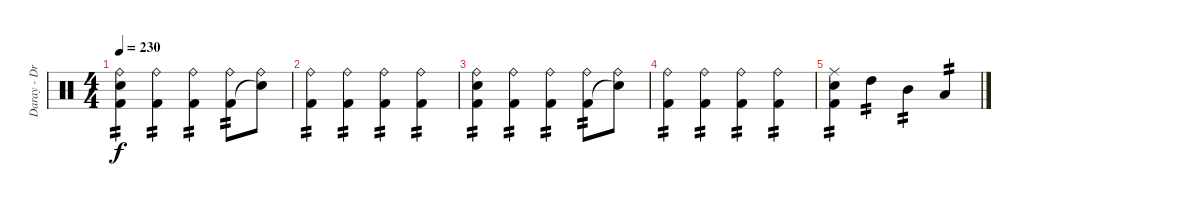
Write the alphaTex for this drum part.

\track ("Daray - Drums" "Daray - Dr") {instrument percussion}
\staff {score}
\articulation defaults
\ts (4 4)
\tempo 230
\clef neutral
\ks c
("Ride (bell)" "Electric Snare (hit)" "Kick (hit) 2").4{tp 2 dy f} ("Ride (bell)" "Kick (hit) 2").4{tp 2} ("Ride (bell)" "Kick (hit) 2").4{tp 2} ("Ride (bell)" "Kick (hit) 2").8{tp 2} ("Ride (bell)" "Snare (hit)"{t}).8 |
("Ride (bell)" "Kick (hit) 2").4{tp 2} ("Ride (bell)" "Kick (hit) 2").4{tp 2} ("Ride (bell)" "Kick (hit) 2").4{tp 2} ("Ride (bell)" "Kick (hit) 2").4{tp 2} |
("Ride (bell)" "Electric Snare (hit)" "Kick (hit) 2").4{tp 2} ("Ride (bell)" "Kick (hit) 2").4{tp 2} ("Ride (bell)" "Kick (hit) 2").4{tp 2} ("Ride (bell)" "Kick (hit) 2").8{tp 2} ("Ride (bell)" "Snare (hit)"{t}).8 |
("Ride (bell)" "Kick (hit) 2").4{tp 2 volume 0} ("Ride (bell)" "Kick (hit) 2").4{tp 2} ("Ride (bell)" "Kick (hit) 2").4{tp 2} ("Ride (bell)" "Kick (hit) 2").4{tp 2} |
("Ride (middle)" "Electric Snare (hit)" "Kick (hit) 2").4{tp 2} "High Tom (hit)".4{tp 2} "Mid Tom (hit)".4{tp 2} "Low Tom (hit)".4{tp 2}
